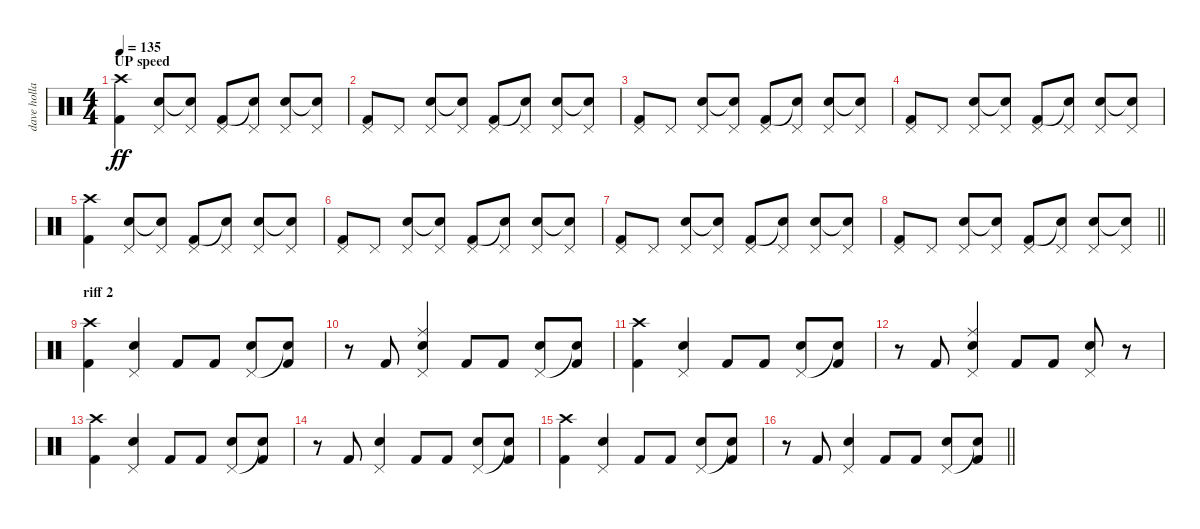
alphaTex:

\track ("dave holland" "dave holla") {instrument percussion}
\staff {score}
\articulation defaults
\ts (4 4)
\section ("" "UP speed")
\tempo 135
\clef neutral
\ks c
("Crash high (hit)" "Kick (hit) 2").4{dy ff} ("Pedal Hi-Hat (hit)" "Electric Snare (hit)").8 ("Pedal Hi-Hat (hit)" "Electric Snare (hit)"{t}).8 ("Pedal Hi-Hat (hit)" "Kick (hit) 2").8 ("Pedal Hi-Hat (hit)" "Snare (hit)"{t}).8 ("Pedal Hi-Hat (hit)" "Electric Snare (hit)").8 ("Pedal Hi-Hat (hit)" "Snare (hit)"{t}).8 |
("Pedal Hi-Hat (hit)" "Kick (hit) 2").8 "Pedal Hi-Hat (hit)".8 ("Pedal Hi-Hat (hit)" "Electric Snare (hit)").8 ("Pedal Hi-Hat (hit)" "Electric Snare (hit)"{t}).8 ("Pedal Hi-Hat (hit)" "Kick (hit) 2").8 ("Pedal Hi-Hat (hit)" "Snare (hit)"{t}).8 ("Pedal Hi-Hat (hit)" "Electric Snare (hit)").8 ("Pedal Hi-Hat (hit)" "Snare (hit)"{t}).8 |
("Pedal Hi-Hat (hit)" "Kick (hit) 2").8 "Pedal Hi-Hat (hit)".8 ("Pedal Hi-Hat (hit)" "Electric Snare (hit)").8 ("Pedal Hi-Hat (hit)" "Electric Snare (hit)"{t}).8 ("Pedal Hi-Hat (hit)" "Kick (hit) 2").8 ("Pedal Hi-Hat (hit)" "Snare (hit)"{t}).8 ("Pedal Hi-Hat (hit)" "Electric Snare (hit)").8 ("Pedal Hi-Hat (hit)" "Snare (hit)"{t}).8 |
("Pedal Hi-Hat (hit)" "Kick (hit) 2").8 "Pedal Hi-Hat (hit)".8 ("Pedal Hi-Hat (hit)" "Electric Snare (hit)").8 ("Pedal Hi-Hat (hit)" "Electric Snare (hit)"{t}).8 ("Pedal Hi-Hat (hit)" "Kick (hit) 2").8 ("Pedal Hi-Hat (hit)" "Snare (hit)"{t}).8 ("Pedal Hi-Hat (hit)" "Electric Snare (hit)").8 ("Pedal Hi-Hat (hit)" "Snare (hit)"{t}).8 |
("Crash high (hit)" "Kick (hit) 2").4 ("Pedal Hi-Hat (hit)" "Electric Snare (hit)").8 ("Pedal Hi-Hat (hit)" "Electric Snare (hit)"{t}).8 ("Pedal Hi-Hat (hit)" "Kick (hit) 2").8 ("Pedal Hi-Hat (hit)" "Snare (hit)"{t}).8 ("Pedal Hi-Hat (hit)" "Electric Snare (hit)").8 ("Pedal Hi-Hat (hit)" "Snare (hit)"{t}).8 |
("Pedal Hi-Hat (hit)" "Kick (hit) 2").8 "Pedal Hi-Hat (hit)".8 ("Pedal Hi-Hat (hit)" "Electric Snare (hit)").8 ("Pedal Hi-Hat (hit)" "Electric Snare (hit)"{t}).8 ("Pedal Hi-Hat (hit)" "Kick (hit) 2").8 ("Pedal Hi-Hat (hit)" "Snare (hit)"{t}).8 ("Pedal Hi-Hat (hit)" "Electric Snare (hit)").8 ("Pedal Hi-Hat (hit)" "Snare (hit)"{t}).8 |
("Pedal Hi-Hat (hit)" "Kick (hit) 2").8 "Pedal Hi-Hat (hit)".8 ("Pedal Hi-Hat (hit)" "Electric Snare (hit)").8 ("Pedal Hi-Hat (hit)" "Electric Snare (hit)"{t}).8 ("Pedal Hi-Hat (hit)" "Kick (hit) 2").8 ("Pedal Hi-Hat (hit)" "Snare (hit)"{t}).8 ("Pedal Hi-Hat (hit)" "Electric Snare (hit)").8 ("Pedal Hi-Hat (hit)" "Snare (hit)"{t}).8 |
\barLineRight lightlight
("Pedal Hi-Hat (hit)" "Kick (hit) 2").8 "Pedal Hi-Hat (hit)".8 ("Pedal Hi-Hat (hit)" "Electric Snare (hit)").8 ("Pedal Hi-Hat (hit)" "Electric Snare (hit)"{t}).8 ("Pedal Hi-Hat (hit)" "Kick (hit) 2").8 ("Pedal Hi-Hat (hit)" "Snare (hit)"{t}).8 ("Pedal Hi-Hat (hit)" "Electric Snare (hit)").8 ("Pedal Hi-Hat (hit)" "Snare (hit)"{t}).8 |
\section ("" "riff 2")
("Crash high (hit)" "Kick (hit) 2").4 ("Pedal Hi-Hat (hit)" "Electric Snare (hit)").4 "Kick (hit) 2".8 "Kick (hit) 2".8 ("Pedal Hi-Hat (hit)" "Electric Snare (hit)").8 ("Snare (hit)"{t} "Kick (hit) 2").8 |
r.8 "Kick (hit) 2".8 ("Ride (middle)" "Pedal Hi-Hat (hit)" "Electric Snare (hit)").4 "Kick (hit) 2".8 "Kick (hit) 2".8 ("Pedal Hi-Hat (hit)" "Electric Snare (hit)").8 ("Snare (hit)"{t} "Kick (hit) 2").8 |
("Crash high (hit)" "Kick (hit) 2").4 ("Pedal Hi-Hat (hit)" "Electric Snare (hit)").4 "Kick (hit) 2".8 "Kick (hit) 2".8 ("Pedal Hi-Hat (hit)" "Electric Snare (hit)").8 ("Snare (hit)"{t} "Kick (hit) 2").8 |
r.8 "Kick (hit) 2".8 ("Ride (middle)" "Pedal Hi-Hat (hit)" "Electric Snare (hit)").4 "Kick (hit) 2".8 "Kick (hit) 2".8 ("Pedal Hi-Hat (hit)" "Electric Snare (hit)").8 r.8 |
("Crash high (hit)" "Kick (hit) 2").4 ("Pedal Hi-Hat (hit)" "Electric Snare (hit)").4 "Kick (hit) 2".8 "Kick (hit) 2".8 ("Pedal Hi-Hat (hit)" "Electric Snare (hit)").8 ("Snare (hit)"{t} "Kick (hit) 2").8 |
r.8 "Kick (hit) 2".8 ("Pedal Hi-Hat (hit)" "Electric Snare (hit)").4 "Kick (hit) 2".8 "Kick (hit) 2".8 ("Pedal Hi-Hat (hit)" "Electric Snare (hit)").8 ("Snare (hit)"{t} "Kick (hit) 2").8 |
("Crash high (hit)" "Kick (hit) 2").4 ("Pedal Hi-Hat (hit)" "Electric Snare (hit)").4 "Kick (hit) 2".8 "Kick (hit) 2".8 ("Pedal Hi-Hat (hit)" "Electric Snare (hit)").8 ("Snare (hit)"{t} "Kick (hit) 2").8 |
\barLineRight lightlight
r.8 "Kick (hit) 2".8 ("Pedal Hi-Hat (hit)" "Electric Snare (hit)").4 "Kick (hit) 2".8 "Kick (hit) 2".8 ("Pedal Hi-Hat (hit)" "Electric Snare (hit)").8 ("Snare (hit)"{t} "Kick (hit) 2").8
